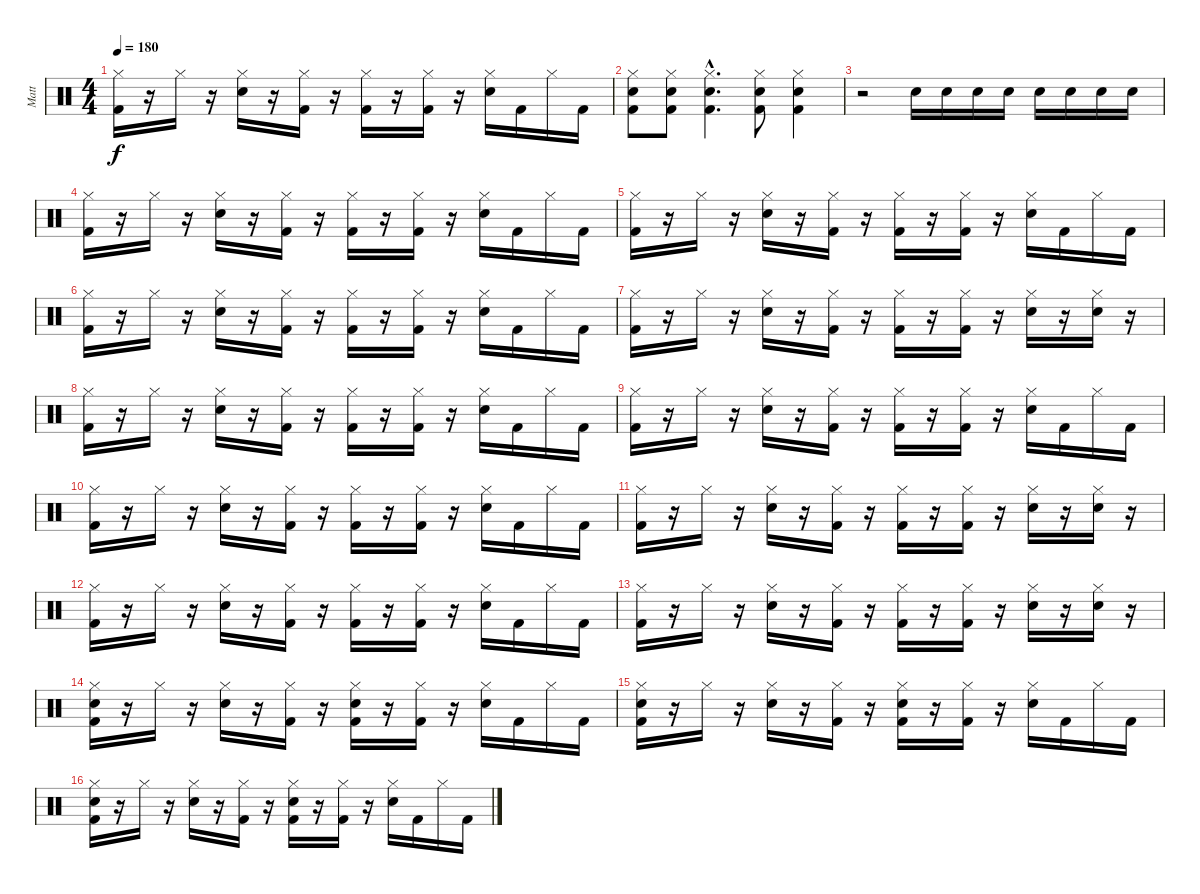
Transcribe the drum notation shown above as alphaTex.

\track ("Matt" "Matt") {instrument percussion}
\staff {score}
\articulation defaults
\ts (4 4)
\tempo 180
\clef neutral
\ks c
("Hi-Hat (closed)" "Kick (hit) 2").16{dy f} r.16 "Hi-Hat (closed)".16 r.16 ("Hi-Hat (closed)" "Snare (hit) 2").16 r.16 ("Hi-Hat (closed)" "Kick (hit) 2").16 r.16 ("Hi-Hat (closed)" "Kick (hit) 2").16 r.16 ("Hi-Hat (closed)" "Kick (hit) 2").16 r.16 ("Hi-Hat (closed)" "Snare (hit) 2").16 "Kick (hit) 2".16 "Hi-Hat (closed)".16 "Kick (hit) 2".16 |
("Hi-Hat (closed)" "Snare (hit) 2" "Kick (hit) 2").8 ("Hi-Hat (closed)" "Snare (hit) 2" "Kick (hit) 2").8 ("Hi-Hat (closed)"{hac} "Snare (hit) 2"{hac} "Kick (hit) 2"{hac}).4{d} ("Hi-Hat (closed)" "Snare (hit) 2" "Kick (hit) 2").8 ("Hi-Hat (closed)" "Snare (hit) 2" "Kick (hit) 2").4 |
r.2 "Snare (hit) 2".16 "Snare (hit) 2".16 "Snare (hit) 2".16 "Snare (hit) 2".16 "Snare (hit) 2".16 "Snare (hit) 2".16 "Snare (hit) 2".16 "Snare (hit) 2".16 |
("Hi-Hat (closed)" "Kick (hit) 2").16 r.16 "Hi-Hat (closed)".16 r.16 ("Hi-Hat (closed)" "Snare (hit) 2").16 r.16 ("Hi-Hat (closed)" "Kick (hit) 2").16 r.16 ("Hi-Hat (closed)" "Kick (hit) 2").16 r.16 ("Hi-Hat (closed)" "Kick (hit) 2").16 r.16 ("Hi-Hat (closed)" "Snare (hit) 2").16 "Kick (hit) 2".16 "Hi-Hat (closed)".16 "Kick (hit) 2".16 |
("Hi-Hat (closed)" "Kick (hit) 2").16 r.16 "Hi-Hat (closed)".16 r.16 ("Hi-Hat (closed)" "Snare (hit) 2").16 r.16 ("Hi-Hat (closed)" "Kick (hit) 2").16 r.16 ("Hi-Hat (closed)" "Kick (hit) 2").16 r.16 ("Hi-Hat (closed)" "Kick (hit) 2").16 r.16 ("Hi-Hat (closed)" "Snare (hit) 2").16 "Kick (hit) 2".16 "Hi-Hat (closed)".16 "Kick (hit) 2".16 |
("Hi-Hat (closed)" "Kick (hit) 2").16 r.16 "Hi-Hat (closed)".16 r.16 ("Hi-Hat (closed)" "Snare (hit) 2").16 r.16 ("Hi-Hat (closed)" "Kick (hit) 2").16 r.16 ("Hi-Hat (closed)" "Kick (hit) 2").16 r.16 ("Hi-Hat (closed)" "Kick (hit) 2").16 r.16 ("Hi-Hat (closed)" "Snare (hit) 2").16 "Kick (hit) 2".16 "Hi-Hat (closed)".16 "Kick (hit) 2".16 |
("Hi-Hat (closed)" "Kick (hit) 2").16 r.16 "Hi-Hat (closed)".16 r.16 ("Hi-Hat (closed)" "Snare (hit) 2").16 r.16 ("Hi-Hat (closed)" "Kick (hit) 2").16 r.16 ("Hi-Hat (closed)" "Kick (hit) 2").16 r.16 ("Hi-Hat (closed)" "Kick (hit) 2").16 r.16 ("Hi-Hat (closed)" "Snare (hit) 2").16 r.16 ("Hi-Hat (closed)" "Snare (hit) 2").16 r.16 |
("Hi-Hat (closed)" "Kick (hit) 2").16 r.16 "Hi-Hat (closed)".16 r.16 ("Hi-Hat (closed)" "Snare (hit) 2").16 r.16 ("Hi-Hat (closed)" "Kick (hit) 2").16 r.16 ("Hi-Hat (closed)" "Kick (hit) 2").16 r.16 ("Hi-Hat (closed)" "Kick (hit) 2").16 r.16 ("Hi-Hat (closed)" "Snare (hit) 2").16 "Kick (hit) 2".16 "Hi-Hat (closed)".16 "Kick (hit) 2".16 |
("Hi-Hat (closed)" "Kick (hit) 2").16 r.16 "Hi-Hat (closed)".16 r.16 ("Hi-Hat (closed)" "Snare (hit) 2").16 r.16 ("Hi-Hat (closed)" "Kick (hit) 2").16 r.16 ("Hi-Hat (closed)" "Kick (hit) 2").16 r.16 ("Hi-Hat (closed)" "Kick (hit) 2").16 r.16 ("Hi-Hat (closed)" "Snare (hit) 2").16 "Kick (hit) 2".16 "Hi-Hat (closed)".16 "Kick (hit) 2".16 |
("Hi-Hat (closed)" "Kick (hit) 2").16 r.16 "Hi-Hat (closed)".16 r.16 ("Hi-Hat (closed)" "Snare (hit) 2").16 r.16 ("Hi-Hat (closed)" "Kick (hit) 2").16 r.16 ("Hi-Hat (closed)" "Kick (hit) 2").16 r.16 ("Hi-Hat (closed)" "Kick (hit) 2").16 r.16 ("Hi-Hat (closed)" "Snare (hit) 2").16 "Kick (hit) 2".16 "Hi-Hat (closed)".16 "Kick (hit) 2".16 |
("Hi-Hat (closed)" "Kick (hit) 2").16 r.16 "Hi-Hat (closed)".16 r.16 ("Hi-Hat (closed)" "Snare (hit) 2").16 r.16 ("Hi-Hat (closed)" "Kick (hit) 2").16 r.16 ("Hi-Hat (closed)" "Kick (hit) 2").16 r.16 ("Hi-Hat (closed)" "Kick (hit) 2").16 r.16 ("Hi-Hat (closed)" "Snare (hit) 2").16 r.16 ("Hi-Hat (closed)" "Snare (hit) 2").16 r.16 |
("Hi-Hat (closed)" "Kick (hit) 2").16 r.16 "Hi-Hat (closed)".16 r.16 ("Hi-Hat (closed)" "Snare (hit) 2").16 r.16 ("Hi-Hat (closed)" "Kick (hit) 2").16 r.16 ("Hi-Hat (closed)" "Kick (hit) 2").16 r.16 ("Hi-Hat (closed)" "Kick (hit) 2").16 r.16 ("Hi-Hat (closed)" "Snare (hit) 2").16 "Kick (hit) 2".16 "Hi-Hat (closed)".16 "Kick (hit) 2".16 |
("Hi-Hat (closed)" "Kick (hit) 2").16 r.16 "Hi-Hat (closed)".16 r.16 ("Hi-Hat (closed)" "Snare (hit) 2").16 r.16 ("Hi-Hat (closed)" "Kick (hit) 2").16 r.16 ("Hi-Hat (closed)" "Kick (hit) 2").16 r.16 ("Hi-Hat (closed)" "Kick (hit) 2").16 r.16 ("Hi-Hat (closed)" "Snare (hit) 2").16 r.16 ("Hi-Hat (closed)" "Snare (hit) 2").16 r.16 |
("Hi-Hat (closed)" "Snare (hit) 2" "Kick (hit) 2").16 r.16 "Hi-Hat (closed)".16 r.16 ("Hi-Hat (closed)" "Snare (hit) 2").16 r.16 ("Hi-Hat (closed)" "Kick (hit) 2").16 r.16 ("Hi-Hat (closed)" "Snare (hit) 2" "Kick (hit) 2").16 r.16 ("Hi-Hat (closed)" "Kick (hit) 2").16 r.16 ("Hi-Hat (closed)" "Snare (hit) 2").16 "Kick (hit) 2".16 "Hi-Hat (closed)".16 "Kick (hit) 2".16 |
("Hi-Hat (closed)" "Snare (hit) 2" "Kick (hit) 2").16 r.16 "Hi-Hat (closed)".16 r.16 ("Hi-Hat (closed)" "Snare (hit) 2").16 r.16 ("Hi-Hat (closed)" "Kick (hit) 2").16 r.16 ("Hi-Hat (closed)" "Snare (hit) 2" "Kick (hit) 2").16 r.16 ("Hi-Hat (closed)" "Kick (hit) 2").16 r.16 ("Hi-Hat (closed)" "Snare (hit) 2").16 "Kick (hit) 2".16 "Hi-Hat (closed)".16 "Kick (hit) 2".16 |
("Hi-Hat (closed)" "Snare (hit) 2" "Kick (hit) 2").16 r.16 "Hi-Hat (closed)".16 r.16 ("Hi-Hat (closed)" "Snare (hit) 2").16 r.16 ("Hi-Hat (closed)" "Kick (hit) 2").16 r.16 ("Hi-Hat (closed)" "Snare (hit) 2" "Kick (hit) 2").16 r.16 ("Hi-Hat (closed)" "Kick (hit) 2").16 r.16 ("Hi-Hat (closed)" "Snare (hit) 2").16 "Kick (hit) 2".16 "Hi-Hat (closed)".16 "Kick (hit) 2".16
